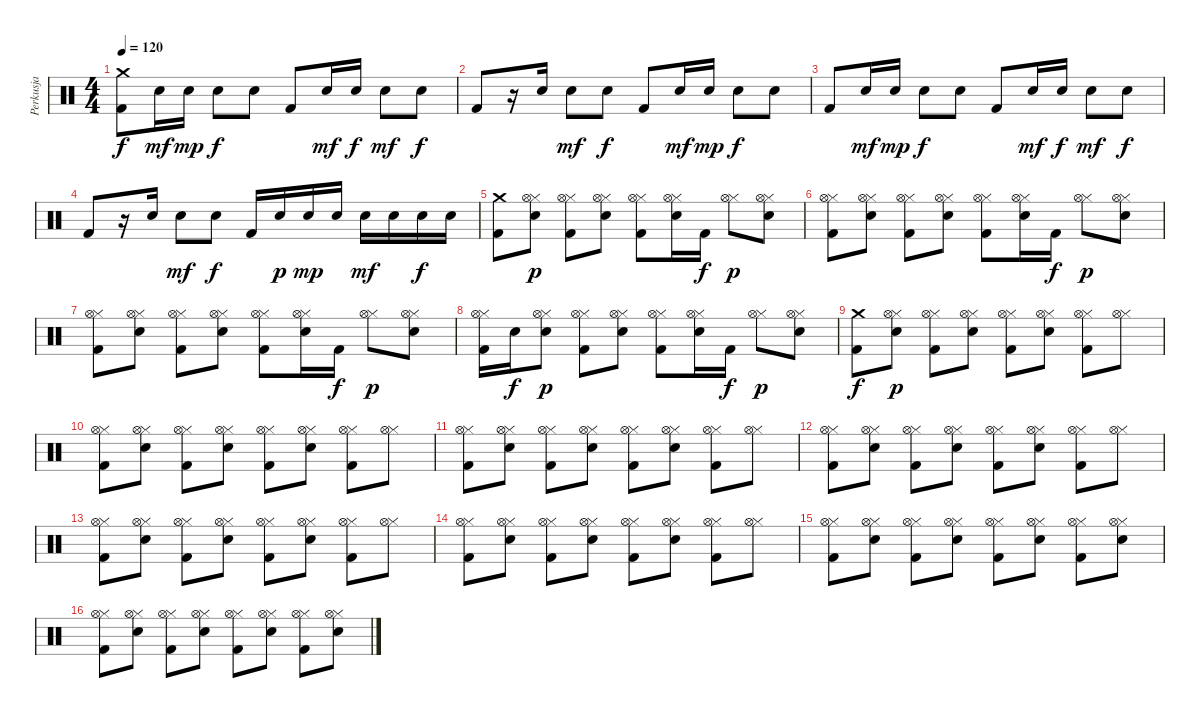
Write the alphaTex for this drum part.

\track ("Perkusja" "Perkusja") {instrument percussion}
\staff {score}
\articulation defaults
\ts (4 4)
\tempo 120
\clef neutral
\ks c
("Kick (hit) 2" "Crash medium (hit)").8{dy f} "Electric Snare (hit)".16{dy mf} "Electric Snare (hit)".16{dy mp} "Electric Snare (hit)".8{dy f} "Electric Snare (hit)".8 "Kick (hit) 2".8 "Electric Snare (hit)".16{dy mf} "Electric Snare (hit)".16{dy f} "Electric Snare (hit)".8{dy mf} "Electric Snare (hit)".8{dy f} |
"Kick (hit) 2".8 r.16 "Electric Snare (hit)".16 "Electric Snare (hit)".8{dy mf} "Electric Snare (hit)".8{dy f} "Kick (hit) 2".8 "Electric Snare (hit)".16{dy mf} "Electric Snare (hit)".16{dy mp} "Electric Snare (hit)".8{dy f} "Electric Snare (hit)".8 |
"Kick (hit) 2".8 "Electric Snare (hit)".16{dy mf} "Electric Snare (hit)".16{dy mp} "Electric Snare (hit)".8{dy f} "Electric Snare (hit)".8 "Kick (hit) 2".8 "Electric Snare (hit)".16{dy mf} "Electric Snare (hit)".16{dy f} "Electric Snare (hit)".8{dy mf} "Electric Snare (hit)".8{dy f} |
"Kick (hit) 2".8 r.16 "Electric Snare (hit)".16 "Electric Snare (hit)".8{dy mf} "Electric Snare (hit)".8{dy f} "Kick (hit) 2".16 "Electric Snare (hit)".16{dy p} "Electric Snare (hit)".16{dy mp} "Electric Snare (hit)".16 "Electric Snare (hit)".16{dy mf} "Electric Snare (hit)".16 "Electric Snare (hit)".16{dy f} "Electric Snare (hit)".16 |
("Kick (hit) 2" "Crash medium (hit)").8 ("Electric Snare (hit)" "Hi-Hat (closed)" "Hi-Hat (open)").8{dy p} ("Kick (hit) 2" "Hi-Hat (closed)" "Hi-Hat (open)").8 ("Electric Snare (hit)" "Hi-Hat (closed)" "Hi-Hat (open)").8 ("Kick (hit) 2" "Hi-Hat (closed)" "Hi-Hat (open)").8 ("Electric Snare (hit)" "Hi-Hat (closed)" "Hi-Hat (open)").16 "Kick (hit) 2".16{dy f} ("Hi-Hat (closed)" "Hi-Hat (open)").8{dy p} ("Electric Snare (hit)" "Hi-Hat (closed)" "Hi-Hat (open)").8 |
("Kick (hit) 2" "Hi-Hat (closed)" "Hi-Hat (open)").8 ("Electric Snare (hit)" "Hi-Hat (closed)" "Hi-Hat (open)").8 ("Kick (hit) 2" "Hi-Hat (closed)" "Hi-Hat (open)").8 ("Electric Snare (hit)" "Hi-Hat (closed)" "Hi-Hat (open)").8 ("Kick (hit) 2" "Hi-Hat (closed)" "Hi-Hat (open)").8 ("Electric Snare (hit)" "Hi-Hat (closed)" "Hi-Hat (open)").16 "Kick (hit) 2".16{dy f} ("Hi-Hat (closed)" "Hi-Hat (open)").8{dy p} ("Electric Snare (hit)" "Hi-Hat (closed)" "Hi-Hat (open)").8 |
("Kick (hit) 2" "Hi-Hat (closed)" "Hi-Hat (open)").8 ("Electric Snare (hit)" "Hi-Hat (closed)" "Hi-Hat (open)").8 ("Kick (hit) 2" "Hi-Hat (closed)" "Hi-Hat (open)").8 ("Electric Snare (hit)" "Hi-Hat (closed)" "Hi-Hat (open)").8 ("Kick (hit) 2" "Hi-Hat (closed)" "Hi-Hat (open)").8 ("Electric Snare (hit)" "Hi-Hat (closed)" "Hi-Hat (open)").16 "Kick (hit) 2".16{dy f} ("Hi-Hat (closed)" "Hi-Hat (open)").8{dy p} ("Electric Snare (hit)" "Hi-Hat (closed)" "Hi-Hat (open)").8 |
("Kick (hit) 2" "Hi-Hat (closed)" "Hi-Hat (open)").16 "Electric Snare (hit)".16{dy f} ("Electric Snare (hit)" "Hi-Hat (closed)" "Hi-Hat (open)").8{dy p} ("Kick (hit) 2" "Hi-Hat (closed)" "Hi-Hat (open)").8 ("Electric Snare (hit)" "Hi-Hat (closed)" "Hi-Hat (open)").8 ("Kick (hit) 2" "Hi-Hat (closed)" "Hi-Hat (open)").8 ("Electric Snare (hit)" "Hi-Hat (closed)" "Hi-Hat (open)").16 "Kick (hit) 2".16{dy f} ("Hi-Hat (closed)" "Hi-Hat (open)").8{dy p} ("Electric Snare (hit)" "Hi-Hat (closed)" "Hi-Hat (open)").8 |
("Kick (hit) 2" "Crash medium (hit)").8{dy f} ("Electric Snare (hit)" "Hi-Hat (closed)" "Hi-Hat (open)").8{dy p} ("Kick (hit) 2" "Hi-Hat (closed)" "Hi-Hat (open)").8 ("Electric Snare (hit)" "Hi-Hat (closed)" "Hi-Hat (open)").8 ("Kick (hit) 2" "Hi-Hat (closed)" "Hi-Hat (open)").8 ("Electric Snare (hit)" "Hi-Hat (closed)" "Hi-Hat (open)").8 ("Kick (hit) 2" "Hi-Hat (closed)" "Hi-Hat (open)").8 ("Hi-Hat (closed)" "Hi-Hat (open)").8 |
("Kick (hit) 2" "Hi-Hat (closed)" "Hi-Hat (open)").8 ("Electric Snare (hit)" "Hi-Hat (closed)" "Hi-Hat (open)").8 ("Kick (hit) 2" "Hi-Hat (closed)" "Hi-Hat (open)").8 ("Electric Snare (hit)" "Hi-Hat (closed)" "Hi-Hat (open)").8 ("Kick (hit) 2" "Hi-Hat (closed)" "Hi-Hat (open)").8 ("Electric Snare (hit)" "Hi-Hat (closed)" "Hi-Hat (open)").8 ("Kick (hit) 2" "Hi-Hat (closed)" "Hi-Hat (open)").8 ("Hi-Hat (closed)" "Hi-Hat (open)").8 |
("Kick (hit) 2" "Hi-Hat (closed)" "Hi-Hat (open)").8 ("Electric Snare (hit)" "Hi-Hat (closed)" "Hi-Hat (open)").8 ("Kick (hit) 2" "Hi-Hat (closed)" "Hi-Hat (open)").8 ("Electric Snare (hit)" "Hi-Hat (closed)" "Hi-Hat (open)").8 ("Kick (hit) 2" "Hi-Hat (closed)" "Hi-Hat (open)").8 ("Electric Snare (hit)" "Hi-Hat (closed)" "Hi-Hat (open)").8 ("Kick (hit) 2" "Hi-Hat (closed)" "Hi-Hat (open)").8 ("Hi-Hat (closed)" "Hi-Hat (open)").8 |
("Kick (hit) 2" "Hi-Hat (closed)" "Hi-Hat (open)").8 ("Electric Snare (hit)" "Hi-Hat (closed)" "Hi-Hat (open)").8 ("Kick (hit) 2" "Hi-Hat (closed)" "Hi-Hat (open)").8 ("Electric Snare (hit)" "Hi-Hat (closed)" "Hi-Hat (open)").8 ("Kick (hit) 2" "Hi-Hat (closed)" "Hi-Hat (open)").8 ("Electric Snare (hit)" "Hi-Hat (closed)" "Hi-Hat (open)").8 ("Kick (hit) 2" "Hi-Hat (closed)" "Hi-Hat (open)").8 ("Hi-Hat (closed)" "Hi-Hat (open)").8 |
("Kick (hit) 2" "Hi-Hat (closed)" "Hi-Hat (open)").8 ("Electric Snare (hit)" "Hi-Hat (closed)" "Hi-Hat (open)").8 ("Kick (hit) 2" "Hi-Hat (closed)" "Hi-Hat (open)").8 ("Electric Snare (hit)" "Hi-Hat (closed)" "Hi-Hat (open)").8 ("Kick (hit) 2" "Hi-Hat (closed)" "Hi-Hat (open)").8 ("Electric Snare (hit)" "Hi-Hat (closed)" "Hi-Hat (open)").8 ("Kick (hit) 2" "Hi-Hat (closed)" "Hi-Hat (open)").8 ("Hi-Hat (closed)" "Hi-Hat (open)").8 |
("Kick (hit) 2" "Hi-Hat (closed)" "Hi-Hat (open)").8 ("Electric Snare (hit)" "Hi-Hat (closed)" "Hi-Hat (open)").8 ("Kick (hit) 2" "Hi-Hat (closed)" "Hi-Hat (open)").8 ("Electric Snare (hit)" "Hi-Hat (closed)" "Hi-Hat (open)").8 ("Kick (hit) 2" "Hi-Hat (closed)" "Hi-Hat (open)").8 ("Electric Snare (hit)" "Hi-Hat (closed)" "Hi-Hat (open)").8 ("Kick (hit) 2" "Hi-Hat (closed)" "Hi-Hat (open)").8 ("Hi-Hat (closed)" "Hi-Hat (open)").8 |
("Kick (hit) 2" "Hi-Hat (closed)" "Hi-Hat (open)").8 ("Electric Snare (hit)" "Hi-Hat (closed)" "Hi-Hat (open)").8 ("Kick (hit) 2" "Hi-Hat (closed)" "Hi-Hat (open)").8 ("Electric Snare (hit)" "Hi-Hat (closed)" "Hi-Hat (open)").8 ("Kick (hit) 2" "Hi-Hat (closed)" "Hi-Hat (open)").8 ("Electric Snare (hit)" "Hi-Hat (closed)" "Hi-Hat (open)").8 ("Kick (hit) 2" "Hi-Hat (closed)" "Hi-Hat (open)").8 ("Electric Snare (hit)" "Hi-Hat (closed)" "Hi-Hat (open)").8 |
("Kick (hit) 2" "Hi-Hat (closed)" "Hi-Hat (open)").8 ("Electric Snare (hit)" "Hi-Hat (closed)" "Hi-Hat (open)").8 ("Kick (hit) 2" "Hi-Hat (closed)" "Hi-Hat (open)").8 ("Electric Snare (hit)" "Hi-Hat (closed)" "Hi-Hat (open)").8 ("Kick (hit) 2" "Hi-Hat (closed)" "Hi-Hat (open)").8 ("Electric Snare (hit)" "Hi-Hat (closed)" "Hi-Hat (open)").8 ("Kick (hit) 2" "Hi-Hat (closed)" "Hi-Hat (open)").8 ("Electric Snare (hit)" "Hi-Hat (closed)" "Hi-Hat (open)").8
